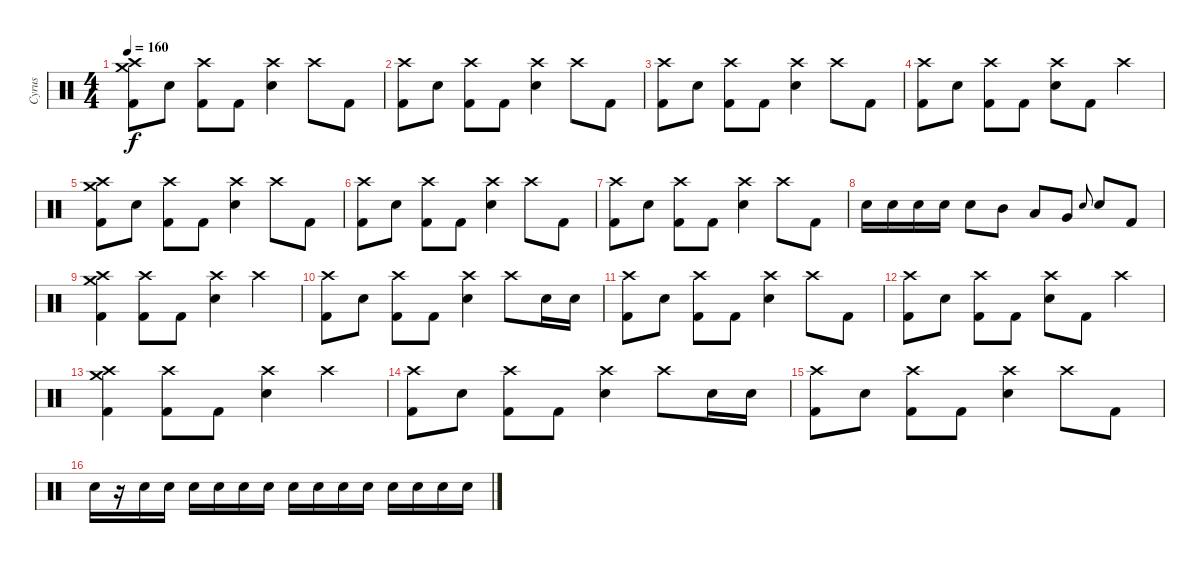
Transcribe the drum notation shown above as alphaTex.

\track ("Cyrus" "Cyrus") {instrument percussion}
\staff {score}
\articulation defaults
\ts (4 4)
\tempo 160
\clef neutral
\ks c
("Crash high (hit)" "Crash medium (hit)" "Kick (hit) 2").8{dy f} "Snare (hit) 2".8 ("Crash high (hit)" "Kick (hit) 2").8 "Kick (hit) 2".8 ("Crash high (hit)" "Snare (hit) 2").4 "Crash high (hit)".8 "Kick (hit) 2".8 |
("Crash high (hit)" "Kick (hit) 2").8 "Snare (hit) 2".8 ("Crash high (hit)" "Kick (hit) 2").8 "Kick (hit) 2".8 ("Crash high (hit)" "Snare (hit) 2").4 "Crash high (hit)".8 "Kick (hit) 2".8 |
("Crash high (hit)" "Kick (hit) 2").8 "Snare (hit) 2".8 ("Crash high (hit)" "Kick (hit) 2").8 "Kick (hit) 2".8 ("Crash high (hit)" "Snare (hit) 2").4 "Crash high (hit)".8 "Kick (hit) 2".8 |
("Crash high (hit)" "Kick (hit) 2").8 "Snare (hit) 2".8 ("Crash high (hit)" "Kick (hit) 2").8 "Kick (hit) 2".8 ("Crash high (hit)" "Snare (hit) 2").8 "Kick (hit) 2".8 "Crash high (hit)".4 |
("Crash high (hit)" "Crash medium (hit)" "Kick (hit) 2").8 "Snare (hit) 2".8 ("Crash high (hit)" "Kick (hit) 2").8 "Kick (hit) 2".8 ("Crash high (hit)" "Snare (hit) 2").4 "Crash high (hit)".8 "Kick (hit) 2".8 |
("Crash high (hit)" "Kick (hit) 2").8 "Snare (hit) 2".8 ("Crash high (hit)" "Kick (hit) 2").8 "Kick (hit) 2".8 ("Crash high (hit)" "Snare (hit) 2").4 "Crash high (hit)".8 "Kick (hit) 2".8 |
("Crash high (hit)" "Kick (hit) 2").8 "Snare (hit) 2".8 ("Crash high (hit)" "Kick (hit) 2").8 "Kick (hit) 2".8 ("Crash high (hit)" "Snare (hit) 2").4 "Crash high (hit)".8 "Kick (hit) 2".8 |
"Snare (hit) 2".16 "Snare (hit) 2".16 "Snare (hit) 2".16 "Snare (hit) 2".16 "Snare (hit) 2".8 "Mid Tom (hit)".8 "Low Tom (hit)".8 "Very Low Tom (hit)".8 "Snare (hit) 2".8{gr onbeat} "Snare (hit) 2".8 "Kick (hit) 2".8 |
("Crash high (hit)" "Crash medium (hit)" "Kick (hit) 2").4 ("Crash high (hit)" "Kick (hit) 2").8 "Kick (hit) 2".8 ("Crash high (hit)" "Snare (hit) 2").4 "Crash high (hit)".4 |
("Crash high (hit)" "Kick (hit) 2").8 "Snare (hit) 2".8 ("Crash high (hit)" "Kick (hit) 2").8 "Kick (hit) 2".8 ("Crash high (hit)" "Snare (hit) 2").4 "Crash high (hit)".8 "Snare (hit) 2".16 "Snare (hit) 2".16 |
("Crash high (hit)" "Kick (hit) 2").8 "Snare (hit) 2".8 ("Crash high (hit)" "Kick (hit) 2").8 "Kick (hit) 2".8 ("Crash high (hit)" "Snare (hit) 2").4 "Crash high (hit)".8 "Kick (hit) 2".8 |
("Crash high (hit)" "Kick (hit) 2").8 "Snare (hit) 2".8 ("Crash high (hit)" "Kick (hit) 2").8 "Kick (hit) 2".8 ("Crash high (hit)" "Snare (hit) 2").8 "Kick (hit) 2".8 "Crash high (hit)".4 |
("Crash high (hit)" "Crash medium (hit)" "Kick (hit) 2").4 ("Crash high (hit)" "Kick (hit) 2").8 "Kick (hit) 2".8 ("Crash high (hit)" "Snare (hit) 2").4 "Crash high (hit)".4 |
("Crash high (hit)" "Kick (hit) 2").8 "Snare (hit) 2".8 ("Crash high (hit)" "Kick (hit) 2").8 "Kick (hit) 2".8 ("Crash high (hit)" "Snare (hit) 2").4 "Crash high (hit)".8 "Snare (hit) 2".16 "Snare (hit) 2".16 |
("Crash high (hit)" "Kick (hit) 2").8 "Snare (hit) 2".8 ("Crash high (hit)" "Kick (hit) 2").8 "Kick (hit) 2".8 ("Crash high (hit)" "Snare (hit) 2").4 "Crash high (hit)".8 "Kick (hit) 2".8 |
"Snare (hit) 2".16 r.16{volume 9} "Snare (hit) 2".16{volume 13} "Snare (hit) 2".16 "Snare (hit) 2".16 "Snare (hit) 2".16 "Snare (hit) 2".16 "Snare (hit) 2".16 "Snare (hit) 2".16 "Snare (hit) 2".16 "Snare (hit) 2".16 "Snare (hit) 2".16 "Snare (hit) 2".16 "Snare (hit) 2".16 "Snare (hit) 2".16 "Snare (hit) 2".16
